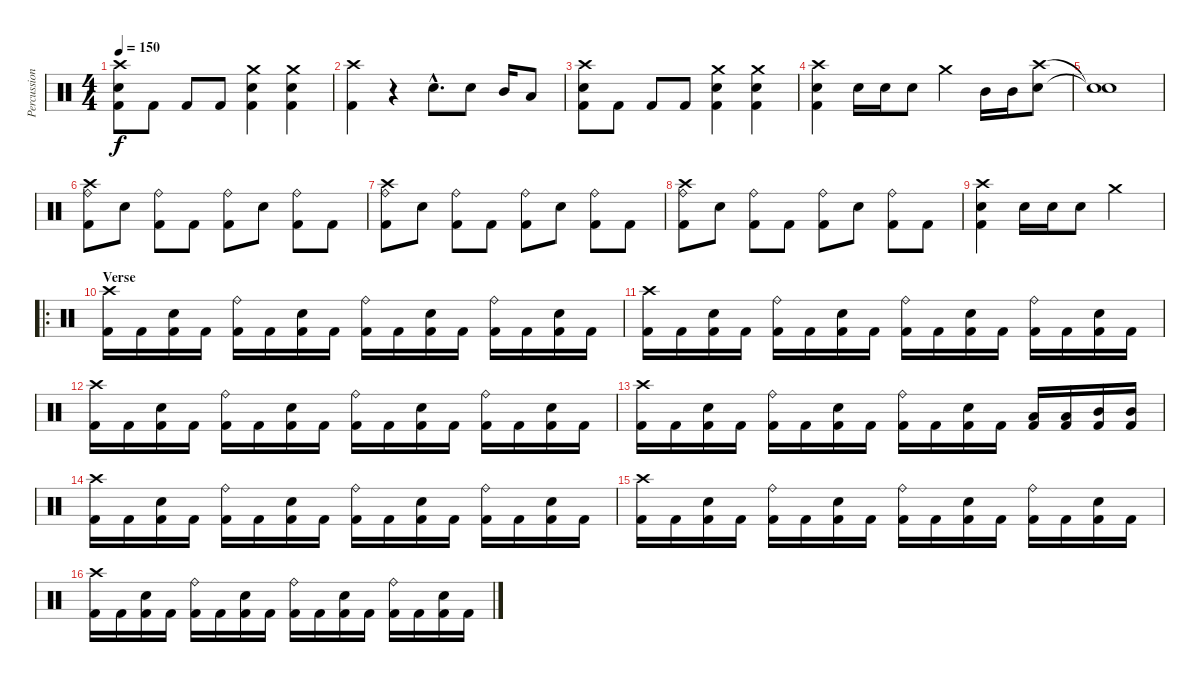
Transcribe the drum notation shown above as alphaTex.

\track ("Percussioni" "Percussion") {instrument percussion}
\staff {score}
\articulation defaults
\ts (4 4)
\tempo 150
\clef neutral
\ks c
("Crash high (hit)" "Snare (hit) 2" "Kick (hit) 2").8{dy f} "Kick (hit) 2".8 "Kick (hit) 2".8 "Kick (hit) 2".8 ("Crash medium (hit)" "Snare (hit) 2" "Kick (hit) 2").4 ("Crash medium (hit)" "Snare (hit) 2" "Kick (hit) 2").4 |
("Crash high (hit)" "Kick (hit) 2").4 r.4 "Snare (hit) 2"{hac}.8{d} "Snare (hit) 2".8 "Mid Tom (hit)".16 "Low Tom (hit)".8 |
("Crash high (hit)" "Snare (hit) 2" "Kick (hit) 2").8 "Kick (hit) 2".8 "Kick (hit) 2".8 "Kick (hit) 2".8 ("Crash medium (hit)" "Snare (hit) 2" "Kick (hit) 2").4 ("Crash medium (hit)" "Snare (hit) 2" "Kick (hit) 2").4 |
("Crash high (hit)" "Snare (hit) 2" "Kick (hit) 2").4 "Snare (hit) 2".16 "Snare (hit) 2".16 "Snare (hit) 2".8 "Crash medium (hit)".4 "Mid Tom (hit)".16 "Mid Tom (hit)".16 ("Crash high (hit)" "Snare (hit) 2").8 |
("Snare (hit)"{t} "Snare (hit)"{t}).1 |
("Crash high (hit)" "Kick (hit) 2" "Ride (bell)").8 "Snare (hit) 2".8 ("Kick (hit) 2" "Ride (bell)").8 "Kick (hit) 2".8 ("Kick (hit) 2" "Ride (bell)").8 "Snare (hit) 2".8 ("Kick (hit) 2" "Ride (bell)").8 "Kick (hit) 2".8 |
("Crash high (hit)" "Kick (hit) 2" "Ride (bell)").8 "Snare (hit) 2".8 ("Kick (hit) 2" "Ride (bell)").8 "Kick (hit) 2".8 ("Kick (hit) 2" "Ride (bell)").8 "Snare (hit) 2".8 ("Kick (hit) 2" "Ride (bell)").8 "Kick (hit) 2".8 |
("Crash high (hit)" "Kick (hit) 2" "Ride (bell)").8 "Snare (hit) 2".8 ("Kick (hit) 2" "Ride (bell)").8 "Kick (hit) 2".8 ("Kick (hit) 2" "Ride (bell)").8 "Snare (hit) 2".8 ("Kick (hit) 2" "Ride (bell)").8 "Kick (hit) 2".8 |
("Crash high (hit)" "Snare (hit) 2" "Kick (hit) 2").4 "Snare (hit) 2".16 "Snare (hit) 2".16 "Snare (hit) 2".8 "Crash medium (hit)".2 |
\ro
\section ("" "Verse")
("Crash high (hit)" "Kick (hit) 2").16 "Kick (hit) 2".16 ("Snare (hit) 2" "Kick (hit) 2").16 "Kick (hit) 2".16 ("Kick (hit) 2" "Ride (bell)").16 "Kick (hit) 2".16 ("Snare (hit) 2" "Kick (hit) 2").16 "Kick (hit) 2".16 ("Kick (hit) 2" "Ride (bell)").16 "Kick (hit) 2".16 ("Snare (hit) 2" "Kick (hit) 2").16 "Kick (hit) 2".16 ("Kick (hit) 2" "Ride (bell)").16 "Kick (hit) 2".16 ("Snare (hit) 2" "Kick (hit) 2").16 "Kick (hit) 2".16 |
("Crash high (hit)" "Kick (hit) 2").16 "Kick (hit) 2".16 ("Snare (hit) 2" "Kick (hit) 2").16 "Kick (hit) 2".16 ("Kick (hit) 2" "Ride (bell)").16 "Kick (hit) 2".16 ("Snare (hit) 2" "Kick (hit) 2").16 "Kick (hit) 2".16 ("Kick (hit) 2" "Ride (bell)").16 "Kick (hit) 2".16 ("Snare (hit) 2" "Kick (hit) 2").16 "Kick (hit) 2".16 ("Kick (hit) 2" "Ride (bell)").16 "Kick (hit) 2".16 ("Snare (hit) 2" "Kick (hit) 2").16 "Kick (hit) 2".16 |
("Crash high (hit)" "Kick (hit) 2").16 "Kick (hit) 2".16 ("Snare (hit) 2" "Kick (hit) 2").16 "Kick (hit) 2".16 ("Kick (hit) 2" "Ride (bell)").16 "Kick (hit) 2".16 ("Snare (hit) 2" "Kick (hit) 2").16 "Kick (hit) 2".16 ("Kick (hit) 2" "Ride (bell)").16 "Kick (hit) 2".16 ("Snare (hit) 2" "Kick (hit) 2").16 "Kick (hit) 2".16 ("Kick (hit) 2" "Ride (bell)").16 "Kick (hit) 2".16 ("Snare (hit) 2" "Kick (hit) 2").16 "Kick (hit) 2".16 |
("Crash high (hit)" "Kick (hit) 2").16 "Kick (hit) 2".16 ("Snare (hit) 2" "Kick (hit) 2").16 "Kick (hit) 2".16 ("Kick (hit) 2" "Ride (bell)").16 "Kick (hit) 2".16 ("Snare (hit) 2" "Kick (hit) 2").16 "Kick (hit) 2".16 ("Kick (hit) 2" "Ride (bell)").16 "Kick (hit) 2".16 ("Snare (hit) 2" "Kick (hit) 2").16 "Kick (hit) 2".16 ("Low Tom (hit)" "Kick (hit) 2").16 ("Low Tom (hit)" "Kick (hit) 2").16 ("Mid Tom (hit)" "Kick (hit) 2").16 ("Mid Tom (hit)" "Kick (hit) 2").16 |
("Crash high (hit)" "Kick (hit) 2").16 "Kick (hit) 2".16 ("Snare (hit) 2" "Kick (hit) 2").16 "Kick (hit) 2".16 ("Kick (hit) 2" "Ride (bell)").16 "Kick (hit) 2".16 ("Snare (hit) 2" "Kick (hit) 2").16 "Kick (hit) 2".16 ("Kick (hit) 2" "Ride (bell)").16 "Kick (hit) 2".16 ("Snare (hit) 2" "Kick (hit) 2").16 "Kick (hit) 2".16 ("Kick (hit) 2" "Ride (bell)").16 "Kick (hit) 2".16 ("Snare (hit) 2" "Kick (hit) 2").16 "Kick (hit) 2".16 |
("Crash high (hit)" "Kick (hit) 2").16 "Kick (hit) 2".16 ("Snare (hit) 2" "Kick (hit) 2").16 "Kick (hit) 2".16 ("Kick (hit) 2" "Ride (bell)").16 "Kick (hit) 2".16 ("Snare (hit) 2" "Kick (hit) 2").16 "Kick (hit) 2".16 ("Kick (hit) 2" "Ride (bell)").16 "Kick (hit) 2".16 ("Snare (hit) 2" "Kick (hit) 2").16 "Kick (hit) 2".16 ("Kick (hit) 2" "Ride (bell)").16 "Kick (hit) 2".16 ("Snare (hit) 2" "Kick (hit) 2").16 "Kick (hit) 2".16 |
("Crash high (hit)" "Kick (hit) 2").16 "Kick (hit) 2".16 ("Snare (hit) 2" "Kick (hit) 2").16 "Kick (hit) 2".16 ("Kick (hit) 2" "Ride (bell)").16 "Kick (hit) 2".16 ("Snare (hit) 2" "Kick (hit) 2").16 "Kick (hit) 2".16 ("Kick (hit) 2" "Ride (bell)").16 "Kick (hit) 2".16 ("Snare (hit) 2" "Kick (hit) 2").16 "Kick (hit) 2".16 ("Kick (hit) 2" "Ride (bell)").16 "Kick (hit) 2".16 ("Snare (hit) 2" "Kick (hit) 2").16 "Kick (hit) 2".16
